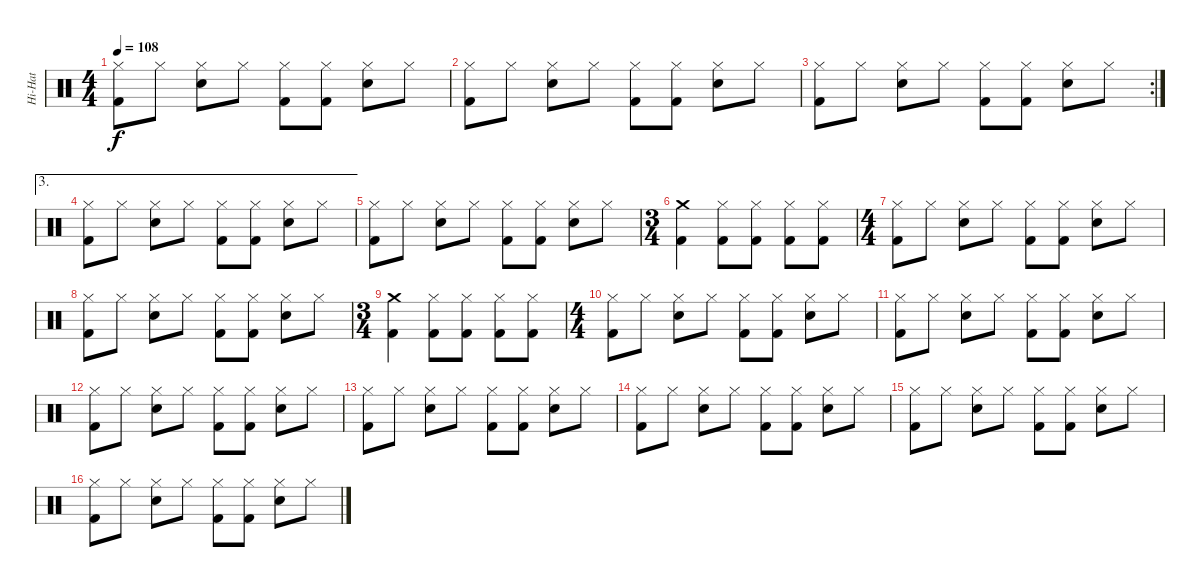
\track ("Hi-Hat" "Hi-Hat") {instrument percussion}
\staff {score}
\articulation defaults
\ts (4 4)
\tempo 108
\clef neutral
\ks c
("Hi-Hat (closed)" "Kick (hit) 2").8{dy f} "Hi-Hat (closed)".8 ("Hi-Hat (closed)" "Snare (hit) 2").8 "Hi-Hat (closed)".8 ("Hi-Hat (closed)" "Kick (hit) 2").8 ("Hi-Hat (closed)" "Kick (hit) 2").8 ("Hi-Hat (closed)" "Snare (hit) 2").8 "Hi-Hat (closed)".8 |
("Hi-Hat (closed)" "Kick (hit) 2").8 "Hi-Hat (closed)".8 ("Hi-Hat (closed)" "Snare (hit) 2").8 "Hi-Hat (closed)".8 ("Hi-Hat (closed)" "Kick (hit) 2").8 ("Hi-Hat (closed)" "Kick (hit) 2").8 ("Hi-Hat (closed)" "Snare (hit) 2").8 "Hi-Hat (closed)".8 |
\rc 2
("Hi-Hat (closed)" "Kick (hit) 2").8 "Hi-Hat (closed)".8 ("Hi-Hat (closed)" "Snare (hit) 2").8 "Hi-Hat (closed)".8 ("Hi-Hat (closed)" "Kick (hit) 2").8 ("Hi-Hat (closed)" "Kick (hit) 2").8 ("Hi-Hat (closed)" "Snare (hit) 2").8 "Hi-Hat (closed)".8 |
\ae 3
("Hi-Hat (closed)" "Kick (hit) 2").8 "Hi-Hat (closed)".8 ("Hi-Hat (closed)" "Snare (hit) 2").8 "Hi-Hat (closed)".8 ("Hi-Hat (closed)" "Kick (hit) 2").8 ("Hi-Hat (closed)" "Kick (hit) 2").8 ("Hi-Hat (closed)" "Snare (hit) 2").8 "Hi-Hat (closed)".8 |
("Hi-Hat (closed)" "Kick (hit) 2").8 "Hi-Hat (closed)".8 ("Hi-Hat (closed)" "Snare (hit) 2").8 "Hi-Hat (closed)".8 ("Hi-Hat (closed)" "Kick (hit) 2").8 ("Hi-Hat (closed)" "Kick (hit) 2").8 ("Hi-Hat (closed)" "Snare (hit) 2").8 "Hi-Hat (closed)".8 |
\ts (3 4)
("Crash medium (hit)" "Kick (hit) 2").4 ("Hi-Hat (closed)" "Kick (hit) 2").8 ("Hi-Hat (closed)" "Kick (hit) 2").8 ("Hi-Hat (closed)" "Kick (hit) 2").8 ("Hi-Hat (closed)" "Kick (hit) 2").8 |
\ts (4 4)
("Hi-Hat (closed)" "Kick (hit) 2").8 "Hi-Hat (closed)".8 ("Hi-Hat (closed)" "Snare (hit) 2").8 "Hi-Hat (closed)".8 ("Hi-Hat (closed)" "Kick (hit) 2").8 ("Hi-Hat (closed)" "Kick (hit) 2").8 ("Hi-Hat (closed)" "Snare (hit) 2").8 "Hi-Hat (closed)".8 |
("Hi-Hat (closed)" "Kick (hit) 2").8 "Hi-Hat (closed)".8 ("Hi-Hat (closed)" "Snare (hit) 2").8 "Hi-Hat (closed)".8 ("Hi-Hat (closed)" "Kick (hit) 2").8 ("Hi-Hat (closed)" "Kick (hit) 2").8 ("Hi-Hat (closed)" "Snare (hit) 2").8 "Hi-Hat (closed)".8 |
\ts (3 4)
("Crash medium (hit)" "Kick (hit) 2").4 ("Hi-Hat (closed)" "Kick (hit) 2").8 ("Hi-Hat (closed)" "Kick (hit) 2").8 ("Hi-Hat (closed)" "Kick (hit) 2").8 ("Hi-Hat (closed)" "Kick (hit) 2").8 |
\ts (4 4)
("Hi-Hat (closed)" "Kick (hit) 2").8 "Hi-Hat (closed)".8 ("Hi-Hat (closed)" "Snare (hit) 2").8 "Hi-Hat (closed)".8 ("Hi-Hat (closed)" "Kick (hit) 2").8 ("Hi-Hat (closed)" "Kick (hit) 2").8 ("Hi-Hat (closed)" "Snare (hit) 2").8 "Hi-Hat (closed)".8 |
("Hi-Hat (closed)" "Kick (hit) 2").8 "Hi-Hat (closed)".8 ("Hi-Hat (closed)" "Snare (hit) 2").8 "Hi-Hat (closed)".8 ("Hi-Hat (closed)" "Kick (hit) 2").8 ("Hi-Hat (closed)" "Kick (hit) 2").8 ("Hi-Hat (closed)" "Snare (hit) 2").8 "Hi-Hat (closed)".8 |
("Hi-Hat (closed)" "Kick (hit) 2").8 "Hi-Hat (closed)".8 ("Hi-Hat (closed)" "Snare (hit) 2").8 "Hi-Hat (closed)".8 ("Hi-Hat (closed)" "Kick (hit) 2").8 ("Hi-Hat (closed)" "Kick (hit) 2").8 ("Hi-Hat (closed)" "Snare (hit) 2").8 "Hi-Hat (closed)".8 |
("Hi-Hat (closed)" "Kick (hit) 2").8 "Hi-Hat (closed)".8 ("Hi-Hat (closed)" "Snare (hit) 2").8 "Hi-Hat (closed)".8 ("Hi-Hat (closed)" "Kick (hit) 2").8 ("Hi-Hat (closed)" "Kick (hit) 2").8 ("Hi-Hat (closed)" "Snare (hit) 2").8 "Hi-Hat (closed)".8 |
("Hi-Hat (closed)" "Kick (hit) 2").8 "Hi-Hat (closed)".8 ("Hi-Hat (closed)" "Snare (hit) 2").8 "Hi-Hat (closed)".8 ("Hi-Hat (closed)" "Kick (hit) 2").8 ("Hi-Hat (closed)" "Kick (hit) 2").8 ("Hi-Hat (closed)" "Snare (hit) 2").8 "Hi-Hat (closed)".8 |
("Hi-Hat (closed)" "Kick (hit) 2").8 "Hi-Hat (closed)".8 ("Hi-Hat (closed)" "Snare (hit) 2").8 "Hi-Hat (closed)".8 ("Hi-Hat (closed)" "Kick (hit) 2").8 ("Hi-Hat (closed)" "Kick (hit) 2").8 ("Hi-Hat (closed)" "Snare (hit) 2").8 "Hi-Hat (closed)".8 |
("Hi-Hat (closed)" "Kick (hit) 2").8 "Hi-Hat (closed)".8 ("Hi-Hat (closed)" "Snare (hit) 2").8 "Hi-Hat (closed)".8 ("Hi-Hat (closed)" "Kick (hit) 2").8 ("Hi-Hat (closed)" "Kick (hit) 2").8 ("Hi-Hat (closed)" "Snare (hit) 2").8 "Hi-Hat (closed)".8
